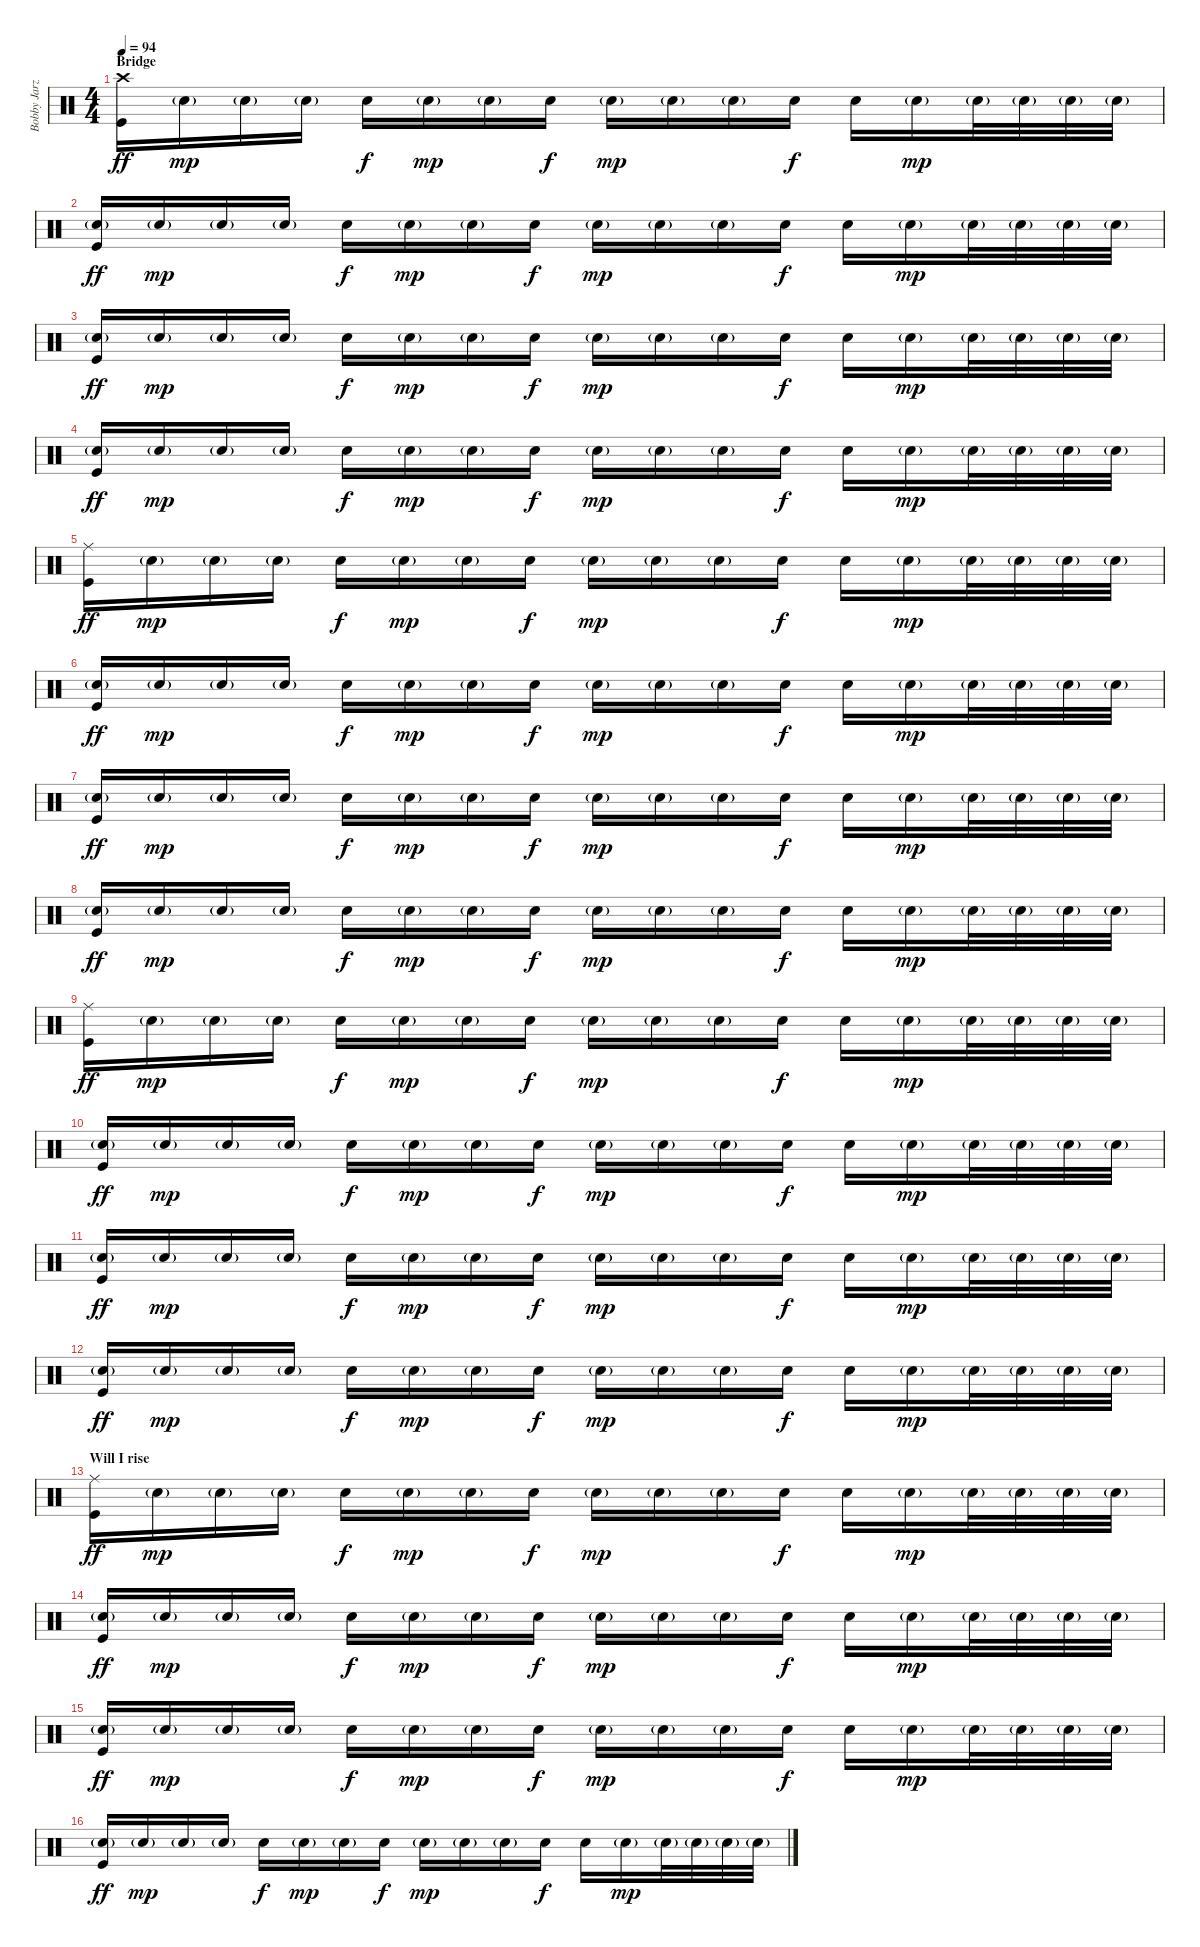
\track ("Bobby Jarzombek" "Bobby Jarz") {instrument percussion}
\staff {score}
\articulation defaults
\ts (4 4)
\section ("" "Bridge")
\tempo 94
\clef neutral
\ks c
("Crash high (hit)" "Kick (hit)").16{dy ff} "Electric Snare (hit)"{g}.16{dy mp} "Electric Snare (hit)"{g}.16 "Electric Snare (hit)"{g}.16 "Electric Snare (hit)".16{dy f} "Electric Snare (hit)"{g}.16{dy mp} "Electric Snare (hit)"{g}.16 "Electric Snare (hit)".16{dy f} "Electric Snare (hit)"{g}.16{dy mp} "Electric Snare (hit)"{g}.16 "Electric Snare (hit)"{g}.16 "Electric Snare (hit)".16{dy f} "Electric Snare (hit)".16 "Electric Snare (hit)"{g}.16{dy mp} "Electric Snare (hit)"{g}.32 "Electric Snare (hit)"{g}.32 "Electric Snare (hit)"{g}.32 "Electric Snare (hit)"{g}.32 |
("Electric Snare (hit)"{g} "Kick (hit)").16{dy ff} "Electric Snare (hit)"{g}.16{dy mp} "Electric Snare (hit)"{g}.16 "Electric Snare (hit)"{g}.16 "Electric Snare (hit)".16{dy f} "Electric Snare (hit)"{g}.16{dy mp} "Electric Snare (hit)"{g}.16 "Electric Snare (hit)".16{dy f} "Electric Snare (hit)"{g}.16{dy mp} "Electric Snare (hit)"{g}.16 "Electric Snare (hit)"{g}.16 "Electric Snare (hit)".16{dy f} "Electric Snare (hit)".16 "Electric Snare (hit)"{g}.16{dy mp} "Electric Snare (hit)"{g}.32 "Electric Snare (hit)"{g}.32 "Electric Snare (hit)"{g}.32 "Electric Snare (hit)"{g}.32 |
("Electric Snare (hit)"{g} "Kick (hit)").16{dy ff} "Electric Snare (hit)"{g}.16{dy mp} "Electric Snare (hit)"{g}.16 "Electric Snare (hit)"{g}.16 "Electric Snare (hit)".16{dy f} "Electric Snare (hit)"{g}.16{dy mp} "Electric Snare (hit)"{g}.16 "Electric Snare (hit)".16{dy f} "Electric Snare (hit)"{g}.16{dy mp} "Electric Snare (hit)"{g}.16 "Electric Snare (hit)"{g}.16 "Electric Snare (hit)".16{dy f} "Electric Snare (hit)".16 "Electric Snare (hit)"{g}.16{dy mp} "Electric Snare (hit)"{g}.32 "Electric Snare (hit)"{g}.32 "Electric Snare (hit)"{g}.32 "Electric Snare (hit)"{g}.32 |
("Electric Snare (hit)"{g} "Kick (hit)").16{dy ff} "Electric Snare (hit)"{g}.16{dy mp} "Electric Snare (hit)"{g}.16 "Electric Snare (hit)"{g}.16 "Electric Snare (hit)".16{dy f} "Electric Snare (hit)"{g}.16{dy mp} "Electric Snare (hit)"{g}.16 "Electric Snare (hit)".16{dy f} "Electric Snare (hit)"{g}.16{dy mp} "Electric Snare (hit)"{g}.16 "Electric Snare (hit)"{g}.16 "Electric Snare (hit)".16{dy f} "Electric Snare (hit)".16 "Electric Snare (hit)"{g}.16{dy mp} "Electric Snare (hit)"{g}.32 "Electric Snare (hit)"{g}.32 "Electric Snare (hit)"{g}.32 "Electric Snare (hit)"{g}.32 |
("Ride (middle)" "Kick (hit)").16{dy ff} "Electric Snare (hit)"{g}.16{dy mp} "Electric Snare (hit)"{g}.16 "Electric Snare (hit)"{g}.16 "Electric Snare (hit)".16{dy f} "Electric Snare (hit)"{g}.16{dy mp} "Electric Snare (hit)"{g}.16 "Electric Snare (hit)".16{dy f} "Electric Snare (hit)"{g}.16{dy mp} "Electric Snare (hit)"{g}.16 "Electric Snare (hit)"{g}.16 "Electric Snare (hit)".16{dy f} "Electric Snare (hit)".16 "Electric Snare (hit)"{g}.16{dy mp} "Electric Snare (hit)"{g}.32 "Electric Snare (hit)"{g}.32 "Electric Snare (hit)"{g}.32 "Electric Snare (hit)"{g}.32 |
("Electric Snare (hit)"{g} "Kick (hit)").16{dy ff} "Electric Snare (hit)"{g}.16{dy mp} "Electric Snare (hit)"{g}.16 "Electric Snare (hit)"{g}.16 "Electric Snare (hit)".16{dy f} "Electric Snare (hit)"{g}.16{dy mp} "Electric Snare (hit)"{g}.16 "Electric Snare (hit)".16{dy f} "Electric Snare (hit)"{g}.16{dy mp} "Electric Snare (hit)"{g}.16 "Electric Snare (hit)"{g}.16 "Electric Snare (hit)".16{dy f} "Electric Snare (hit)".16 "Electric Snare (hit)"{g}.16{dy mp} "Electric Snare (hit)"{g}.32 "Electric Snare (hit)"{g}.32 "Electric Snare (hit)"{g}.32 "Electric Snare (hit)"{g}.32 |
("Electric Snare (hit)"{g} "Kick (hit)").16{dy ff} "Electric Snare (hit)"{g}.16{dy mp} "Electric Snare (hit)"{g}.16 "Electric Snare (hit)"{g}.16 "Electric Snare (hit)".16{dy f} "Electric Snare (hit)"{g}.16{dy mp} "Electric Snare (hit)"{g}.16 "Electric Snare (hit)".16{dy f} "Electric Snare (hit)"{g}.16{dy mp} "Electric Snare (hit)"{g}.16 "Electric Snare (hit)"{g}.16 "Electric Snare (hit)".16{dy f} "Electric Snare (hit)".16 "Electric Snare (hit)"{g}.16{dy mp} "Electric Snare (hit)"{g}.32 "Electric Snare (hit)"{g}.32 "Electric Snare (hit)"{g}.32 "Electric Snare (hit)"{g}.32 |
("Electric Snare (hit)"{g} "Kick (hit)").16{dy ff} "Electric Snare (hit)"{g}.16{dy mp} "Electric Snare (hit)"{g}.16 "Electric Snare (hit)"{g}.16 "Electric Snare (hit)".16{dy f} "Electric Snare (hit)"{g}.16{dy mp} "Electric Snare (hit)"{g}.16 "Electric Snare (hit)".16{dy f} "Electric Snare (hit)"{g}.16{dy mp} "Electric Snare (hit)"{g}.16 "Electric Snare (hit)"{g}.16 "Electric Snare (hit)".16{dy f} "Electric Snare (hit)".16 "Electric Snare (hit)"{g}.16{dy mp} "Electric Snare (hit)"{g}.32 "Electric Snare (hit)"{g}.32 "Electric Snare (hit)"{g}.32 "Electric Snare (hit)"{g}.32 |
("Ride (middle)" "Kick (hit)").16{dy ff} "Electric Snare (hit)"{g}.16{dy mp} "Electric Snare (hit)"{g}.16 "Electric Snare (hit)"{g}.16 "Electric Snare (hit)".16{dy f} "Electric Snare (hit)"{g}.16{dy mp} "Electric Snare (hit)"{g}.16 "Electric Snare (hit)".16{dy f} "Electric Snare (hit)"{g}.16{dy mp} "Electric Snare (hit)"{g}.16 "Electric Snare (hit)"{g}.16 "Electric Snare (hit)".16{dy f} "Electric Snare (hit)".16 "Electric Snare (hit)"{g}.16{dy mp} "Electric Snare (hit)"{g}.32 "Electric Snare (hit)"{g}.32 "Electric Snare (hit)"{g}.32 "Electric Snare (hit)"{g}.32 |
("Electric Snare (hit)"{g} "Kick (hit)").16{dy ff} "Electric Snare (hit)"{g}.16{dy mp} "Electric Snare (hit)"{g}.16 "Electric Snare (hit)"{g}.16 "Electric Snare (hit)".16{dy f} "Electric Snare (hit)"{g}.16{dy mp} "Electric Snare (hit)"{g}.16 "Electric Snare (hit)".16{dy f} "Electric Snare (hit)"{g}.16{dy mp} "Electric Snare (hit)"{g}.16 "Electric Snare (hit)"{g}.16 "Electric Snare (hit)".16{dy f} "Electric Snare (hit)".16 "Electric Snare (hit)"{g}.16{dy mp} "Electric Snare (hit)"{g}.32 "Electric Snare (hit)"{g}.32 "Electric Snare (hit)"{g}.32 "Electric Snare (hit)"{g}.32 |
("Electric Snare (hit)"{g} "Kick (hit)").16{dy ff} "Electric Snare (hit)"{g}.16{dy mp} "Electric Snare (hit)"{g}.16 "Electric Snare (hit)"{g}.16 "Electric Snare (hit)".16{dy f} "Electric Snare (hit)"{g}.16{dy mp} "Electric Snare (hit)"{g}.16 "Electric Snare (hit)".16{dy f} "Electric Snare (hit)"{g}.16{dy mp} "Electric Snare (hit)"{g}.16 "Electric Snare (hit)"{g}.16 "Electric Snare (hit)".16{dy f} "Electric Snare (hit)".16 "Electric Snare (hit)"{g}.16{dy mp} "Electric Snare (hit)"{g}.32 "Electric Snare (hit)"{g}.32 "Electric Snare (hit)"{g}.32 "Electric Snare (hit)"{g}.32 |
("Electric Snare (hit)"{g} "Kick (hit)").16{dy ff} "Electric Snare (hit)"{g}.16{dy mp} "Electric Snare (hit)"{g}.16 "Electric Snare (hit)"{g}.16 "Electric Snare (hit)".16{dy f} "Electric Snare (hit)"{g}.16{dy mp} "Electric Snare (hit)"{g}.16 "Electric Snare (hit)".16{dy f} "Electric Snare (hit)"{g}.16{dy mp} "Electric Snare (hit)"{g}.16 "Electric Snare (hit)"{g}.16 "Electric Snare (hit)".16{dy f} "Electric Snare (hit)".16 "Electric Snare (hit)"{g}.16{dy mp} "Electric Snare (hit)"{g}.32 "Electric Snare (hit)"{g}.32 "Electric Snare (hit)"{g}.32 "Electric Snare (hit)"{g}.32 |
\section ("" "Will I rise")
("Ride (middle)" "Kick (hit)").16{dy ff} "Electric Snare (hit)"{g}.16{dy mp} "Electric Snare (hit)"{g}.16 "Electric Snare (hit)"{g}.16 "Electric Snare (hit)".16{dy f} "Electric Snare (hit)"{g}.16{dy mp} "Electric Snare (hit)"{g}.16 "Electric Snare (hit)".16{dy f} "Electric Snare (hit)"{g}.16{dy mp} "Electric Snare (hit)"{g}.16 "Electric Snare (hit)"{g}.16 "Electric Snare (hit)".16{dy f} "Electric Snare (hit)".16 "Electric Snare (hit)"{g}.16{dy mp} "Electric Snare (hit)"{g}.32 "Electric Snare (hit)"{g}.32 "Electric Snare (hit)"{g}.32 "Electric Snare (hit)"{g}.32 |
("Electric Snare (hit)"{g} "Kick (hit)").16{dy ff} "Electric Snare (hit)"{g}.16{dy mp} "Electric Snare (hit)"{g}.16 "Electric Snare (hit)"{g}.16 "Electric Snare (hit)".16{dy f} "Electric Snare (hit)"{g}.16{dy mp} "Electric Snare (hit)"{g}.16 "Electric Snare (hit)".16{dy f} "Electric Snare (hit)"{g}.16{dy mp} "Electric Snare (hit)"{g}.16 "Electric Snare (hit)"{g}.16 "Electric Snare (hit)".16{dy f} "Electric Snare (hit)".16 "Electric Snare (hit)"{g}.16{dy mp} "Electric Snare (hit)"{g}.32 "Electric Snare (hit)"{g}.32 "Electric Snare (hit)"{g}.32 "Electric Snare (hit)"{g}.32 |
("Electric Snare (hit)"{g} "Kick (hit)").16{dy ff} "Electric Snare (hit)"{g}.16{dy mp} "Electric Snare (hit)"{g}.16 "Electric Snare (hit)"{g}.16 "Electric Snare (hit)".16{dy f} "Electric Snare (hit)"{g}.16{dy mp} "Electric Snare (hit)"{g}.16 "Electric Snare (hit)".16{dy f} "Electric Snare (hit)"{g}.16{dy mp} "Electric Snare (hit)"{g}.16 "Electric Snare (hit)"{g}.16 "Electric Snare (hit)".16{dy f} "Electric Snare (hit)".16 "Electric Snare (hit)"{g}.16{dy mp} "Electric Snare (hit)"{g}.32 "Electric Snare (hit)"{g}.32 "Electric Snare (hit)"{g}.32 "Electric Snare (hit)"{g}.32 |
("Electric Snare (hit)"{g} "Kick (hit)").16{dy ff} "Electric Snare (hit)"{g}.16{dy mp} "Electric Snare (hit)"{g}.16 "Electric Snare (hit)"{g}.16 "Electric Snare (hit)".16{dy f} "Electric Snare (hit)"{g}.16{dy mp} "Electric Snare (hit)"{g}.16 "Electric Snare (hit)".16{dy f} "Electric Snare (hit)"{g}.16{dy mp} "Electric Snare (hit)"{g}.16 "Electric Snare (hit)"{g}.16 "Electric Snare (hit)".16{dy f} "Electric Snare (hit)".16 "Electric Snare (hit)"{g}.16{dy mp} "Electric Snare (hit)"{g}.32 "Electric Snare (hit)"{g}.32 "Electric Snare (hit)"{g}.32 "Electric Snare (hit)"{g}.32
